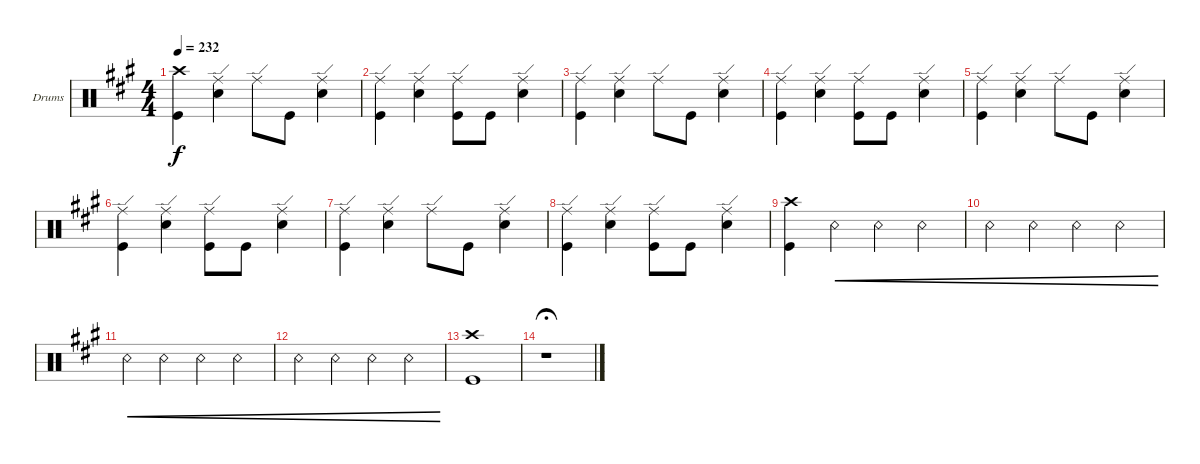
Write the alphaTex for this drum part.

\defaultSystemsLayout 4
\bracketExtendMode groupsimilarinstruments
\firstSystemTrackNameOrientation horizontal
\otherSystemsTrackNameOrientation horizontal
\track ("Drums" "Drums") {instrument percussion}
\staff {score}
\articulation defaults
\ts (4 4)
\tempo 232
\clef neutral
\ks a
("Kick (hit)" "Crash high (hit)").4{dy f} ("Snare (hit) 2" "Ride (edge)").4 "Ride (edge)".8 "Kick (hit)".8 ("Snare (hit) 2" "Ride (edge)").4 |
("Kick (hit)" "Ride (edge)").4 ("Snare (hit) 2" "Ride (edge)").4 ("Ride (edge)" "Kick (hit)").8 "Kick (hit)".8 ("Snare (hit) 2" "Ride (edge)").4 |
("Kick (hit)" "Ride (edge)").4 ("Snare (hit) 2" "Ride (edge)").4 "Ride (edge)".8 "Kick (hit)".8 ("Snare (hit) 2" "Ride (edge)").4 |
("Kick (hit)" "Ride (edge)").4 ("Snare (hit) 2" "Ride (edge)").4 ("Ride (edge)" "Kick (hit)").8 "Kick (hit)".8 ("Snare (hit) 2" "Ride (edge)").4 |
("Kick (hit)" "Ride (edge)").4 ("Snare (hit) 2" "Ride (edge)").4 "Ride (edge)".8 "Kick (hit)".8 ("Snare (hit) 2" "Ride (edge)").4 |
("Kick (hit)" "Ride (edge)").4 ("Snare (hit) 2" "Ride (edge)").4 ("Ride (edge)" "Kick (hit)").8 "Kick (hit)".8 ("Snare (hit) 2" "Ride (edge)").4 |
("Kick (hit)" "Ride (edge)").4 ("Snare (hit) 2" "Ride (edge)").4 "Ride (edge)".8 "Kick (hit)".8 ("Snare (hit) 2" "Ride (edge)").4 |
("Kick (hit)" "Ride (edge)").4 ("Snare (hit) 2" "Ride (edge)").4 ("Ride (edge)" "Kick (hit)").8 "Kick (hit)".8 ("Snare (hit) 2" "Ride (edge)").4 |
("Kick (hit)" "Crash high (hit)").4 "Snare (rim shot)".4{cre} "Snare (rim shot)".4{cre} "Snare (rim shot)".4{cre} |
"Snare (rim shot)".4{cre} "Snare (rim shot)".4{cre} "Snare (rim shot)".4{cre} "Snare (rim shot)".4{cre} |
"Snare (rim shot)".4{cre} "Snare (rim shot)".4{cre} "Snare (rim shot)".4{cre} "Snare (rim shot)".4{cre} |
"Snare (rim shot)".4{cre} "Snare (rim shot)".4{cre} "Snare (rim shot)".4{cre} "Snare (rim shot)".4{cre} |
("Kick (hit)" "Crash high (hit)").1 |
r.1{fermata (medium 1)}
